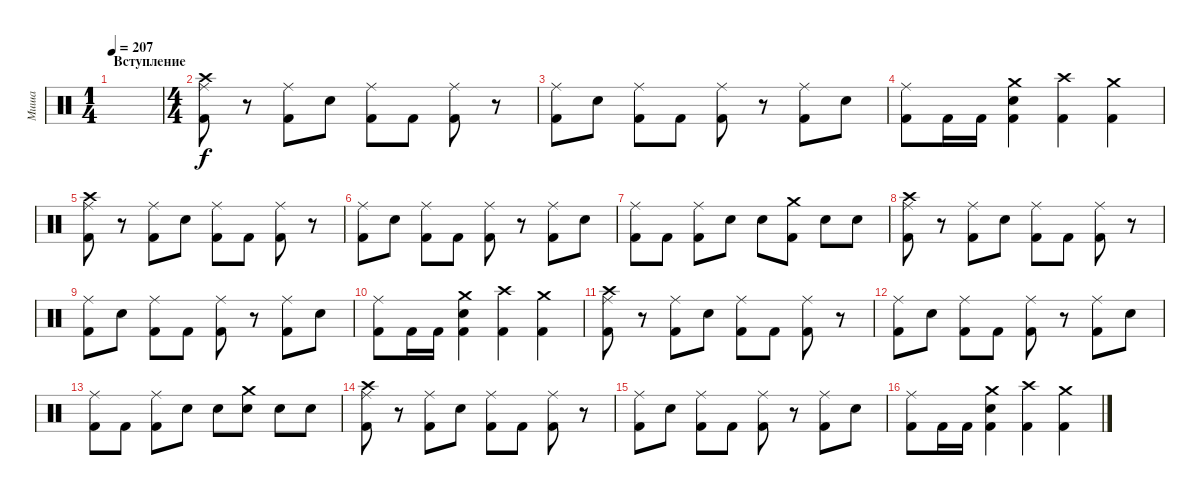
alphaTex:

\track ("Миша" "Миша") {instrument percussion}
\staff {score}
\articulation defaults
\ts (1 4)
\section ("" "Вступление")
\tempo 207
\clef neutral
\ks c
|
\ts (4 4)
("Kick (hit) 2" "Ride (middle)" "Crash high (hit)").8 r.8 ("Kick (hit) 2" "Ride (middle)").8 "Snare (hit) 2".8 ("Kick (hit) 2" "Ride (middle)").8 "Kick (hit) 2".8 ("Kick (hit) 2" "Ride (middle)").8 r.8 |
("Kick (hit) 2" "Ride (middle)").8 "Snare (hit) 2".8 ("Kick (hit) 2" "Ride (middle)").8 "Kick (hit) 2".8 ("Kick (hit) 2" "Ride (middle)").8 r.8 ("Kick (hit) 2" "Ride (middle)").8 "Snare (hit) 2".8 |
("Kick (hit) 2" "Ride (middle)").8 "Kick (hit) 2".16 "Kick (hit) 2".16 ("Kick (hit) 2" "Snare (hit) 2" "Crash medium (hit)").4 ("Kick (hit) 2" "Crash high (hit)").4 ("Kick (hit) 2" "Crash medium (hit)").4 |
("Kick (hit) 2" "Ride (middle)" "Crash high (hit)").8 r.8 ("Kick (hit) 2" "Ride (middle)").8 "Snare (hit) 2".8 ("Kick (hit) 2" "Ride (middle)").8 "Kick (hit) 2".8 ("Kick (hit) 2" "Ride (middle)").8 r.8 |
("Kick (hit) 2" "Ride (middle)").8 "Snare (hit) 2".8 ("Kick (hit) 2" "Ride (middle)").8 "Kick (hit) 2".8 ("Kick (hit) 2" "Ride (middle)").8 r.8 ("Kick (hit) 2" "Ride (middle)").8 "Snare (hit) 2".8 |
("Kick (hit) 2" "Ride (middle)").8 "Kick (hit) 2".8 ("Kick (hit) 2" "Ride (middle)").8 "Snare (hit) 2".8 "Snare (hit) 2".8 ("Kick (hit) 2" "Crash medium (hit)").8 "Snare (hit) 2".8 "Snare (hit) 2".8 |
("Kick (hit) 2" "Ride (middle)" "Crash high (hit)").8 r.8 ("Kick (hit) 2" "Ride (middle)").8 "Snare (hit) 2".8 ("Kick (hit) 2" "Ride (middle)").8 "Kick (hit) 2".8 ("Kick (hit) 2" "Ride (middle)").8 r.8 |
("Kick (hit) 2" "Ride (middle)").8 "Snare (hit) 2".8 ("Kick (hit) 2" "Ride (middle)").8 "Kick (hit) 2".8 ("Kick (hit) 2" "Ride (middle)").8 r.8 ("Kick (hit) 2" "Ride (middle)").8 "Snare (hit) 2".8 |
("Kick (hit) 2" "Ride (middle)").8 "Kick (hit) 2".16 "Kick (hit) 2".16 ("Kick (hit) 2" "Snare (hit) 2" "Crash medium (hit)").4 ("Kick (hit) 2" "Crash high (hit)").4 ("Kick (hit) 2" "Crash medium (hit)").4 |
("Kick (hit) 2" "Ride (middle)" "Crash high (hit)").8 r.8 ("Kick (hit) 2" "Ride (middle)").8 "Snare (hit) 2".8 ("Kick (hit) 2" "Ride (middle)").8 "Kick (hit) 2".8 ("Kick (hit) 2" "Ride (middle)").8 r.8 |
("Kick (hit) 2" "Ride (middle)").8 "Snare (hit) 2".8 ("Kick (hit) 2" "Ride (middle)").8 "Kick (hit) 2".8 ("Kick (hit) 2" "Ride (middle)").8 r.8 ("Kick (hit) 2" "Ride (middle)").8 "Snare (hit) 2".8 |
("Kick (hit) 2" "Ride (middle)").8 "Kick (hit) 2".8 ("Kick (hit) 2" "Ride (middle)").8 "Snare (hit) 2".8 "Snare (hit) 2".8 ("Snare (hit) 2" "Crash medium (hit)").8 "Snare (hit) 2".8 "Snare (hit) 2".8 |
("Kick (hit) 2" "Ride (middle)" "Crash high (hit)").8 r.8 ("Kick (hit) 2" "Ride (middle)").8 "Snare (hit) 2".8 ("Kick (hit) 2" "Ride (middle)").8 "Kick (hit) 2".8 ("Kick (hit) 2" "Ride (middle)").8 r.8 |
("Kick (hit) 2" "Ride (middle)").8 "Snare (hit) 2".8 ("Kick (hit) 2" "Ride (middle)").8 "Kick (hit) 2".8 ("Kick (hit) 2" "Ride (middle)").8 r.8 ("Kick (hit) 2" "Ride (middle)").8 "Snare (hit) 2".8 |
("Kick (hit) 2" "Ride (middle)").8 "Kick (hit) 2".16 "Kick (hit) 2".16 ("Kick (hit) 2" "Snare (hit) 2" "Crash medium (hit)").4 ("Kick (hit) 2" "Crash high (hit)").4 ("Kick (hit) 2" "Crash medium (hit)").4
